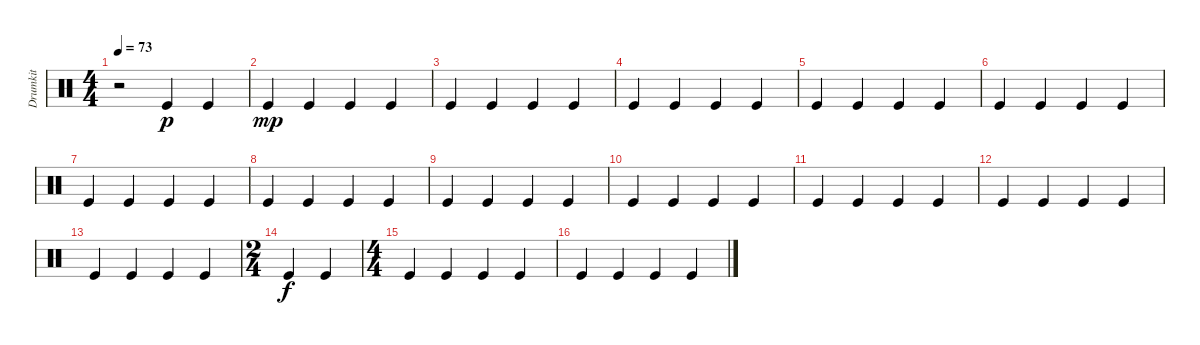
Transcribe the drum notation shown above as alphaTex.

\track ("Drumkit" "Drumkit") {instrument percussion}
\staff {score}
\articulation defaults
\ts (4 4)
\tempo 73
\clef neutral
\ks c
r.2{dy p} "Kick (hit)".4 "Kick (hit)".4 |
"Kick (hit)".4{dy mp} "Kick (hit)".4 "Kick (hit)".4 "Kick (hit)".4 |
"Kick (hit)".4 "Kick (hit)".4 "Kick (hit)".4 "Kick (hit)".4 |
"Kick (hit)".4 "Kick (hit)".4 "Kick (hit)".4 "Kick (hit)".4 |
"Kick (hit)".4 "Kick (hit)".4 "Kick (hit)".4 "Kick (hit)".4 |
"Kick (hit)".4 "Kick (hit)".4 "Kick (hit)".4 "Kick (hit)".4 |
"Kick (hit)".4 "Kick (hit)".4 "Kick (hit)".4 "Kick (hit)".4 |
"Kick (hit)".4 "Kick (hit)".4 "Kick (hit)".4 "Kick (hit)".4 |
"Kick (hit)".4 "Kick (hit)".4 "Kick (hit)".4 "Kick (hit)".4 |
"Kick (hit)".4 "Kick (hit)".4 "Kick (hit)".4 "Kick (hit)".4 |
"Kick (hit)".4 "Kick (hit)".4 "Kick (hit)".4 "Kick (hit)".4 |
"Kick (hit)".4 "Kick (hit)".4 "Kick (hit)".4 "Kick (hit)".4 |
"Kick (hit)".4 "Kick (hit)".4 "Kick (hit)".4 "Kick (hit)".4 |
\ts (2 4)
"Kick (hit)".4{dy f} "Kick (hit)".4 |
\ts (4 4)
"Kick (hit)".4 "Kick (hit)".4 "Kick (hit)".4 "Kick (hit)".4 |
"Kick (hit)".4 "Kick (hit)".4 "Kick (hit)".4 "Kick (hit)".4
